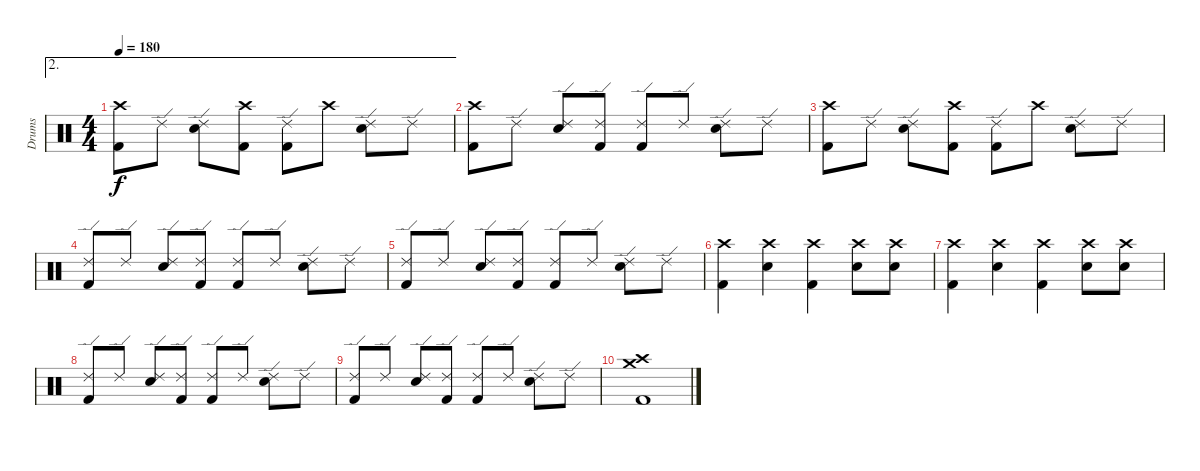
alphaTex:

\track ("Drums" "Drums") {instrument percussion}
\staff {score}
\articulation defaults
\ae 2
\ts (4 4)
\tempo 180
\clef neutral
\ks c
("Crash high (hit)" "Kick (hit) 2").8{dy f} "Ride (edge) 2".8 ("Ride (edge) 2" "Electric Snare (hit)").8 ("Crash high (hit)" "Kick (hit) 2").8 ("Ride (edge) 2" "Kick (hit) 2").8 "Crash high (hit)".8 ("Ride (edge) 2" "Electric Snare (hit)").8 "Ride (edge) 2".8 |
("Crash high (hit)" "Kick (hit) 2").8 "Ride (edge) 2".8 ("Ride (edge) 2" "Electric Snare (hit)").8 ("Ride (edge) 2" "Kick (hit) 2").8 ("Ride (edge) 2" "Kick (hit) 2").8 "Ride (edge) 2".8 ("Ride (edge) 2" "Electric Snare (hit)").8 "Ride (edge) 2".8 |
("Crash high (hit)" "Kick (hit) 2").8 "Ride (edge) 2".8 ("Ride (edge) 2" "Electric Snare (hit)").8 ("Crash high (hit)" "Kick (hit) 2").8 ("Ride (edge) 2" "Kick (hit) 2").8 "Crash high (hit)".8 ("Ride (edge) 2" "Electric Snare (hit)").8 "Ride (edge) 2".8 |
("Ride (edge) 2" "Kick (hit) 2").8 "Ride (edge) 2".8 ("Ride (edge) 2" "Electric Snare (hit)").8 ("Ride (edge) 2" "Kick (hit) 2").8 ("Ride (edge) 2" "Kick (hit) 2").8 "Ride (edge) 2".8 ("Ride (edge) 2" "Electric Snare (hit)").8 "Ride (edge) 2".8 |
("Ride (edge) 2" "Kick (hit) 2").8 "Ride (edge) 2".8 ("Ride (edge) 2" "Electric Snare (hit)").8 ("Ride (edge) 2" "Kick (hit) 2").8 ("Ride (edge) 2" "Kick (hit) 2").8 "Ride (edge) 2".8 ("Ride (edge) 2" "Electric Snare (hit)").8 "Ride (edge) 2".8 |
("Crash high (hit)" "Kick (hit) 2").4 ("Crash high (hit)" "Electric Snare (hit)").4 ("Crash high (hit)" "Kick (hit) 2").4 ("Crash high (hit)" "Electric Snare (hit)").8 ("Crash high (hit)" "Electric Snare (hit)").8 |
("Crash high (hit)" "Kick (hit) 2").4 ("Crash high (hit)" "Electric Snare (hit)").4 ("Crash high (hit)" "Kick (hit) 2").4 ("Crash high (hit)" "Electric Snare (hit)").8 ("Crash high (hit)" "Electric Snare (hit)").8 |
("Ride (edge) 2" "Kick (hit) 2").8 "Ride (edge) 2".8 ("Ride (edge) 2" "Electric Snare (hit)").8 ("Ride (edge) 2" "Kick (hit) 2").8 ("Ride (edge) 2" "Kick (hit) 2").8 "Ride (edge) 2".8 ("Ride (edge) 2" "Electric Snare (hit)").8 "Ride (edge) 2".8 |
("Ride (edge) 2" "Kick (hit) 2").8 "Ride (edge) 2".8 ("Ride (edge) 2" "Electric Snare (hit)").8 ("Ride (edge) 2" "Kick (hit) 2").8 ("Ride (edge) 2" "Kick (hit) 2").8 "Ride (edge) 2".8 ("Ride (edge) 2" "Electric Snare (hit)").8 "Ride (edge) 2".8 |
("Crash high (hit)" "Crash medium (hit)" "Kick (hit) 2").1
